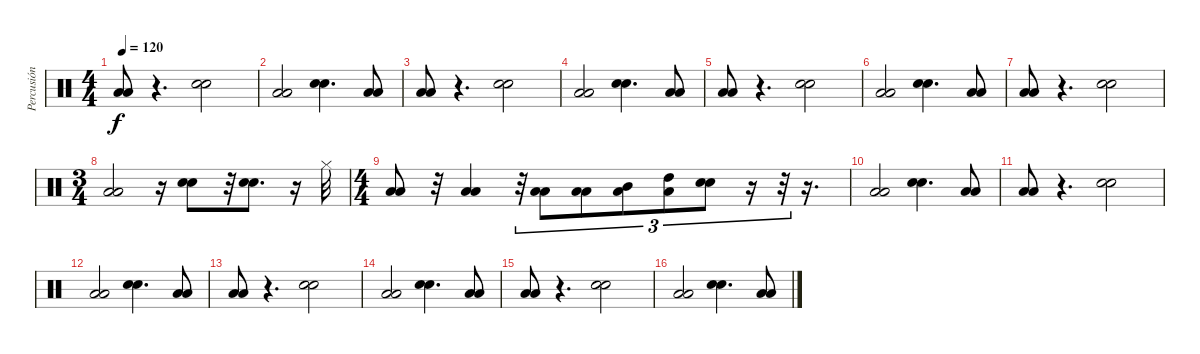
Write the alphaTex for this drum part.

\track ("Percusión" "Percusión") {instrument percussion}
\staff {score}
\articulation defaults
\ts (4 4)
\tempo 120
\clef neutral
\ks c
("Low Floor Tom (hit)" "Low Floor Tom (hit)").8{dy f} r.4{d} ("Electric Snare (hit)" "Electric Snare (hit)").2 |
("Low Floor Tom (hit)" "Low Floor Tom (hit)").2 ("Electric Snare (hit)" "Electric Snare (hit)").4{d} ("Low Floor Tom (hit)" "Low Floor Tom (hit)").8 |
("Low Floor Tom (hit)" "Low Floor Tom (hit)").8 r.4{d} ("Electric Snare (hit)" "Electric Snare (hit)").2 |
("Low Floor Tom (hit)" "Low Floor Tom (hit)").2 ("Electric Snare (hit)" "Electric Snare (hit)").4{d} ("Low Floor Tom (hit)" "Low Floor Tom (hit)").8 |
("Low Floor Tom (hit)" "Low Floor Tom (hit)").8 r.4{d} ("Electric Snare (hit)" "Electric Snare (hit)").2 |
("Low Floor Tom (hit)" "Low Floor Tom (hit)").2 ("Electric Snare (hit)" "Electric Snare (hit)").4{d} ("Low Floor Tom (hit)" "Low Floor Tom (hit)").8 |
("Low Floor Tom (hit)" "Low Floor Tom (hit)").8 r.4{d} ("Electric Snare (hit)" "Electric Snare (hit)").2 |
\ts (3 4)
("Low Floor Tom (hit)" "Low Floor Tom (hit)").2 r.16 ("Electric Snare (hit)" "Electric Snare (hit)").8 r.32 ("Electric Snare (hit)" "Electric Snare (hit)").8{d} r.16 "Hi-Hat (closed)".32 |
\ts (4 4)
("Low Floor Tom (hit)" "Low Tom (hit)").8 r.32 ("Low Floor Tom (hit)" "Low Tom (hit)").4 r.32{tu (3 2)} ("Low Floor Tom (hit)" "Low Tom (hit)").8{tu (3 2)} ("Low Floor Tom (hit)" "Low Tom (hit)").8{tu (3 2)} ("Low Tom (hit)" "Mid Tom (hit)").8{tu (3 2)} ("Low Tom (hit)" "High Tom (hit)").8{tu (3 2)} ("Electric Snare (hit)" "Electric Snare (hit)").8{tu (3 2)} r.16{tu (3 2)} r.32{tu (3 2)} r.16{d} |
("Low Floor Tom (hit)" "Low Floor Tom (hit)").2 ("Electric Snare (hit)" "Electric Snare (hit)").4{d} ("Low Floor Tom (hit)" "Low Floor Tom (hit)").8 |
("Low Floor Tom (hit)" "Low Floor Tom (hit)").8 r.4{d} ("Electric Snare (hit)" "Electric Snare (hit)").2 |
("Low Floor Tom (hit)" "Low Floor Tom (hit)").2 ("Electric Snare (hit)" "Electric Snare (hit)").4{d} ("Low Floor Tom (hit)" "Low Floor Tom (hit)").8 |
("Low Floor Tom (hit)" "Low Floor Tom (hit)").8 r.4{d} ("Electric Snare (hit)" "Electric Snare (hit)").2 |
("Low Floor Tom (hit)" "Low Floor Tom (hit)").2 ("Electric Snare (hit)" "Electric Snare (hit)").4{d} ("Low Floor Tom (hit)" "Low Floor Tom (hit)").8 |
("Low Floor Tom (hit)" "Low Floor Tom (hit)").8 r.4{d} ("Electric Snare (hit)" "Electric Snare (hit)").2 |
("Low Floor Tom (hit)" "Low Floor Tom (hit)").2 ("Electric Snare (hit)" "Electric Snare (hit)").4{d} ("Low Floor Tom (hit)" "Low Floor Tom (hit)").8
